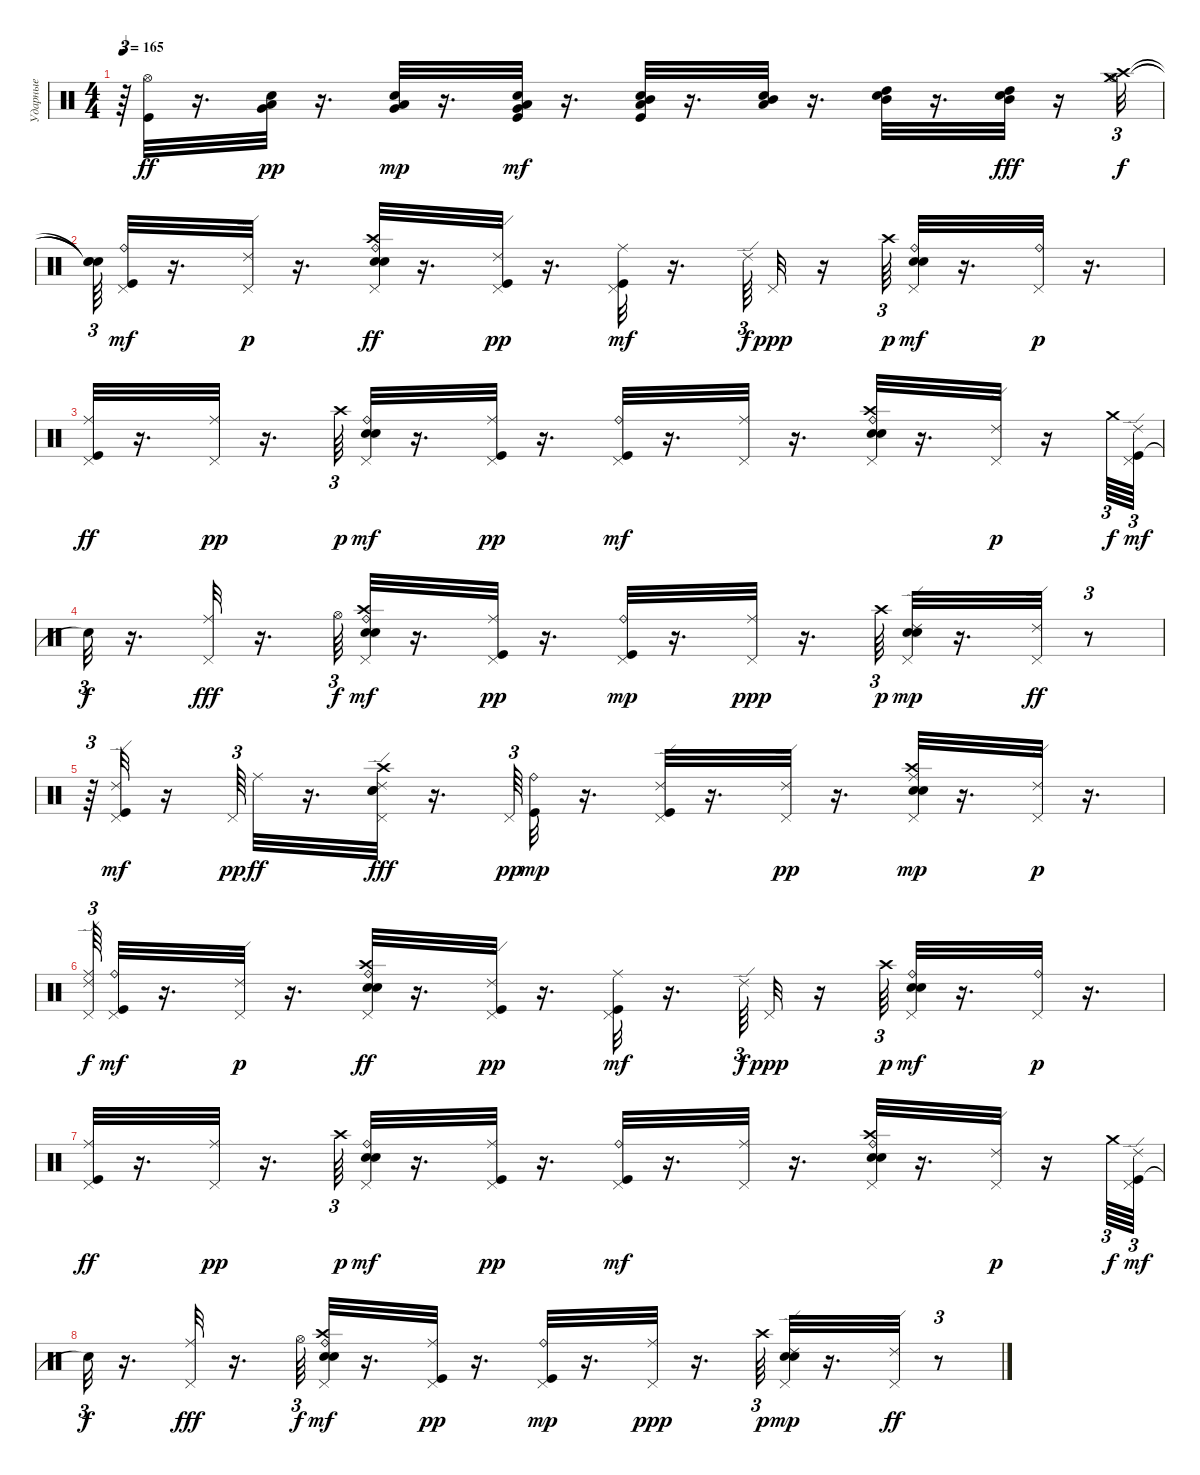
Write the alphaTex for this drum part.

\track ("Ударные" "Ударные") {instrument percussion}
\staff {score}
\articulation defaults
\ts (4 4)
\tempo 165
\clef neutral
\ks c
r.64{tu (3 2) dy f} ("Kick (hit)" "Hi-Hat (open)").32{dy ff} r.16{d} ("Electric Snare (hit)" "Low Tom (hit)" "Very Low Tom (hit)").32{dy pp} r.16{d} ("Electric Snare (hit)" "Low Tom (hit)" "Very Low Tom (hit)").32{dy mp} r.16{d} ("Kick (hit)" "Electric Snare (hit)" "Low Tom (hit)" "Very Low Tom (hit)").32{dy mf} r.16{d} ("Kick (hit)" "Electric Snare (hit)" "Mid Tom (hit)" "Low Tom (hit)").32 r.16{d} ("Electric Snare (hit)" "Mid Tom (hit)" "Low Tom (hit)").32 r.16{d} ("Electric Snare (hit)" "High Tom (hit)" "Mid Tom (hit)").32 r.16{d} ("Electric Snare (hit)" "High Tom (hit)" "Mid Tom (hit)").32{dy fff} r.16 ("Crash high (hit)" "Crash medium (hit)" "Hi-Hat (open)").32{tu (3 2) dy f} |
("Snare (hit)"{t} "Snare (hit)"{t} "Snare (hit)"{t}).64{tu (3 2)} ("Kick (hit)" "Ride (bell)" "Pedal Hi-Hat (hit)").32{dy mf} r.16{d} ("Ride (edge) 2" "Pedal Hi-Hat (hit)").32{dy p} r.16{d} ("Electric Snare (hit)" "Crash high (hit)" "Snare (hit) 2" "Ride (bell)" "Pedal Hi-Hat (hit)").32{dy ff} r.16{d} ("Kick (hit)" "Ride (edge) 2" "Pedal Hi-Hat (hit)").32{dy pp} r.16{d} ("Kick (hit)" "Ride (middle)" "Pedal Hi-Hat (hit)").32{dy mf} r.16{d} "Ride (edge) 2".64{tu (3 2) dy f} "Pedal Hi-Hat (hit)".32{dy ppp} r.16 "Crash high (hit)".64{tu (3 2) dy p} ("Electric Snare (hit)" "Snare (hit) 2" "Ride (bell)" "Pedal Hi-Hat (hit)").32{dy mf} r.16{d} ("Ride (bell)" "Pedal Hi-Hat (hit)").32{dy p} r.16{d} |
("Kick (hit)" "Ride (middle)" "Pedal Hi-Hat (hit)").32{dy ff} r.16{d} ("Ride (middle)" "Pedal Hi-Hat (hit)").32{dy pp} r.16{d} "Crash high (hit)".64{tu (3 2) dy p} ("Electric Snare (hit)" "Snare (hit) 2" "Ride (bell)" "Pedal Hi-Hat (hit)").32{dy mf} r.16{d} ("Kick (hit)" "Ride (middle)" "Pedal Hi-Hat (hit)").32{dy pp} r.16{d} ("Kick (hit)" "Ride (bell)" "Pedal Hi-Hat (hit)").32{dy mf} r.16{d} ("Pedal Hi-Hat (hit)" "Ride (middle)").32 r.16{d} ("Electric Snare (hit)" "Crash high (hit)" "Snare (hit) 2" "Ride (bell)" "Pedal Hi-Hat (hit)").32 r.16{d} ("Ride (edge) 2" "Pedal Hi-Hat (hit)").32{dy p} r.16 "Crash medium (hit)".64{tu (3 2) dy f} ("Kick (hit)" "Ride (edge) 2" "Pedal Hi-Hat (hit)").64{tu (3 2) dy mf} |
"Snare (hit)"{t}.32{tu (3 2) dy f} r.16{d} ("Pedal Hi-Hat (hit)" "Ride (middle)").32{dy fff} r.16{d} "Hi-Hat (open)".64{tu (3 2) dy f} ("Electric Snare (hit)" "Crash high (hit)" "Snare (hit) 2" "Ride (bell)" "Pedal Hi-Hat (hit)").32{dy mf} r.16{d} ("Kick (hit)" "Ride (middle)" "Pedal Hi-Hat (hit)").32{dy pp} r.16{d} ("Kick (hit)" "Ride (bell)" "Pedal Hi-Hat (hit)").32{dy mp} r.16{d} ("Ride (middle)" "Pedal Hi-Hat (hit)").32{dy ppp} r.16{d} "Crash high (hit)".64{tu (3 2) dy p} ("Electric Snare (hit)" "Snare (hit) 2" "Ride (edge) 2" "Pedal Hi-Hat (hit)").32{dy mp} r.16{d} ("Pedal Hi-Hat (hit)" "Ride (edge) 2").32{dy ff} r.8{tu (3 2)} |
r.64{tu (3 2)} ("Kick (hit)" "Ride (edge) 2" "Pedal Hi-Hat (hit)").32{dy mf} r.16 "Pedal Hi-Hat (hit)".64{tu (3 2) dy pp} "Ride (middle)".32{dy ff} r.16{d} ("Pedal Hi-Hat (hit)" "Electric Snare (hit)" "Crash high (hit)" "Snare (hit) 2" "Ride (edge) 2").32{dy fff} r.16{d} "Pedal Hi-Hat (hit)".64{tu (3 2) dy pp} ("Kick (hit)" "Ride (bell)").32{dy mp} r.16{d} ("Kick (hit)" "Ride (edge) 2" "Pedal Hi-Hat (hit)").32 r.16{d} ("Ride (edge) 2" "Pedal Hi-Hat (hit)").32{dy pp} r.16{d} ("Electric Snare (hit)" "Snare (hit) 2" "Ride (middle)" "Pedal Hi-Hat (hit)" "Crash high (hit)").32{dy mp} r.16{d} ("Ride (edge) 2" "Pedal Hi-Hat (hit)").32{dy p} r.16{d} |
("Ride (edge) 2" "Pedal Hi-Hat (hit)" "Ride (middle)").64{tu (3 2) dy f} ("Kick (hit)" "Ride (bell)" "Pedal Hi-Hat (hit)").32{dy mf} r.16{d} ("Ride (edge) 2" "Pedal Hi-Hat (hit)").32{dy p} r.16{d} ("Electric Snare (hit)" "Crash high (hit)" "Snare (hit) 2" "Ride (bell)" "Pedal Hi-Hat (hit)").32{dy ff} r.16{d} ("Kick (hit)" "Ride (edge) 2" "Pedal Hi-Hat (hit)").32{dy pp} r.16{d} ("Kick (hit)" "Ride (middle)" "Pedal Hi-Hat (hit)").32{dy mf} r.16{d} "Ride (edge) 2".64{tu (3 2) dy f} "Pedal Hi-Hat (hit)".32{dy ppp} r.16 "Crash high (hit)".64{tu (3 2) dy p} ("Electric Snare (hit)" "Snare (hit) 2" "Ride (bell)" "Pedal Hi-Hat (hit)").32{dy mf} r.16{d} ("Ride (bell)" "Pedal Hi-Hat (hit)").32{dy p} r.16{d} |
("Kick (hit)" "Ride (middle)" "Pedal Hi-Hat (hit)").32{dy ff} r.16{d} ("Ride (middle)" "Pedal Hi-Hat (hit)").32{dy pp} r.16{d} "Crash high (hit)".64{tu (3 2) dy p} ("Electric Snare (hit)" "Snare (hit) 2" "Ride (bell)" "Pedal Hi-Hat (hit)").32{dy mf} r.16{d} ("Kick (hit)" "Ride (middle)" "Pedal Hi-Hat (hit)").32{dy pp} r.16{d} ("Kick (hit)" "Ride (bell)" "Pedal Hi-Hat (hit)").32{dy mf} r.16{d} ("Pedal Hi-Hat (hit)" "Ride (middle)").32 r.16{d} ("Electric Snare (hit)" "Crash high (hit)" "Snare (hit) 2" "Ride (bell)" "Pedal Hi-Hat (hit)").32 r.16{d} ("Ride (edge) 2" "Pedal Hi-Hat (hit)").32{dy p} r.16 "Crash medium (hit)".64{tu (3 2) dy f} ("Kick (hit)" "Ride (edge) 2" "Pedal Hi-Hat (hit)").64{tu (3 2) dy mf} |
"Snare (hit)"{t}.32{tu (3 2) dy f} r.16{d} ("Pedal Hi-Hat (hit)" "Ride (middle)").32{dy fff} r.16{d} "Hi-Hat (open)".64{tu (3 2) dy f} ("Electric Snare (hit)" "Crash high (hit)" "Snare (hit) 2" "Ride (bell)" "Pedal Hi-Hat (hit)").32{dy mf} r.16{d} ("Kick (hit)" "Ride (middle)" "Pedal Hi-Hat (hit)").32{dy pp} r.16{d} ("Kick (hit)" "Ride (bell)" "Pedal Hi-Hat (hit)").32{dy mp} r.16{d} ("Ride (middle)" "Pedal Hi-Hat (hit)").32{dy ppp} r.16{d} "Crash high (hit)".64{tu (3 2) dy p} ("Electric Snare (hit)" "Snare (hit) 2" "Ride (edge) 2" "Pedal Hi-Hat (hit)").32{dy mp} r.16{d} ("Pedal Hi-Hat (hit)" "Ride (edge) 2").32{dy ff} r.8{tu (3 2)}
